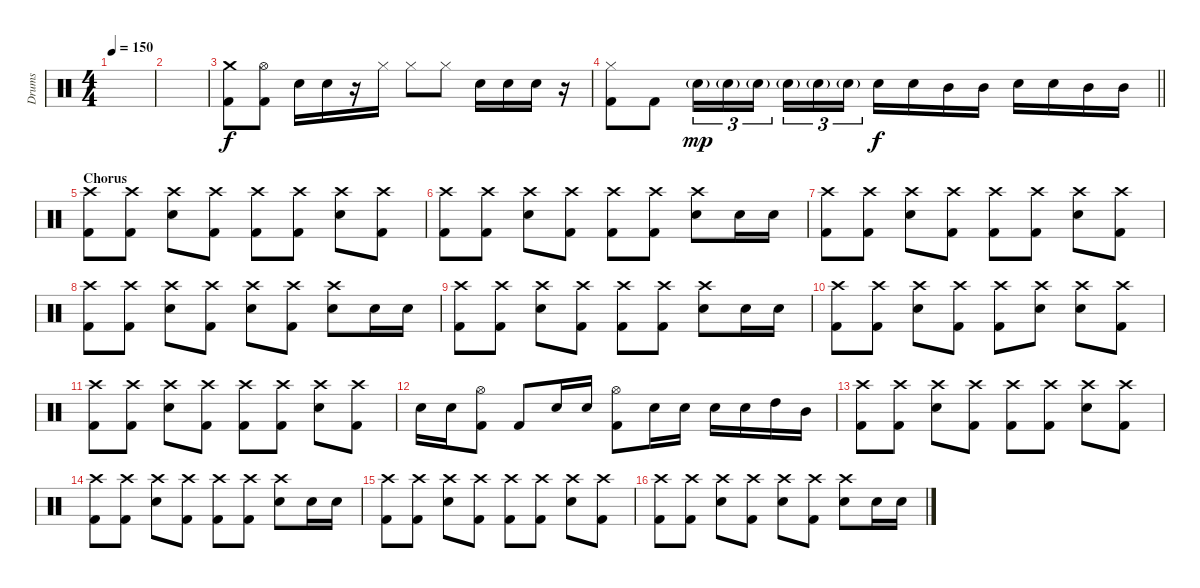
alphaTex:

\track ("Drums" "Drums") {instrument percussion}
\staff {score}
\articulation defaults
\ts (4 4)
\tempo 150
\clef neutral
\ks c
|
|
("Crash medium (hit)" "Kick (hit) 2").8{dy f} ("Hi-Hat (open)" "Kick (hit) 2").8 "Electric Snare (hit)".16 "Electric Snare (hit)".16 r.16 "Hi-Hat (closed)".16 "Hi-Hat (closed)".8 "Hi-Hat (closed)".8 "Electric Snare (hit)".16 "Electric Snare (hit)".16 "Electric Snare (hit)".16 r.16 |
\barLineRight lightlight
("Hi-Hat (closed)" "Kick (hit) 2").8 "Kick (hit) 2".8 "Electric Snare (hit)"{g}.16{tu (3 2) dy mp} "Electric Snare (hit)"{g}.16{tu (3 2)} "Electric Snare (hit)"{g}.16{tu (3 2) beam splitsecondary} "Electric Snare (hit)"{g}.16{tu (3 2)} "Electric Snare (hit)"{g}.16{tu (3 2)} "Electric Snare (hit)"{g}.16{tu (3 2)} "Electric Snare (hit)".16{dy f} "Electric Snare (hit)".16 "Mid Tom (hit)".16 "Mid Tom (hit)".16 "Electric Snare (hit)".16 "Electric Snare (hit)".16 "Mid Tom (hit)".16 "Mid Tom (hit)".16 |
\section ("" "Chorus")
("Crash high (hit)" "Kick (hit) 2").8 ("Crash high (hit)" "Kick (hit) 2").8 ("Crash high (hit)" "Electric Snare (hit)").8 ("Crash high (hit)" "Kick (hit) 2").8 ("Crash high (hit)" "Kick (hit) 2").8 ("Crash high (hit)" "Kick (hit) 2").8 ("Crash high (hit)" "Electric Snare (hit)").8 ("Crash high (hit)" "Kick (hit) 2").8 |
("Crash high (hit)" "Kick (hit) 2").8 ("Crash high (hit)" "Kick (hit) 2").8 ("Crash high (hit)" "Electric Snare (hit)").8 ("Crash high (hit)" "Kick (hit) 2").8 ("Crash high (hit)" "Kick (hit) 2").8 ("Crash high (hit)" "Kick (hit) 2").8 ("Crash high (hit)" "Electric Snare (hit)").8 "Electric Snare (hit)".16 "Electric Snare (hit)".16 |
("Crash high (hit)" "Kick (hit) 2").8 ("Crash high (hit)" "Kick (hit) 2").8 ("Crash high (hit)" "Electric Snare (hit)").8 ("Crash high (hit)" "Kick (hit) 2").8 ("Crash high (hit)" "Kick (hit) 2").8 ("Crash high (hit)" "Kick (hit) 2").8 ("Crash high (hit)" "Electric Snare (hit)").8 ("Crash high (hit)" "Kick (hit) 2").8 |
("Crash high (hit)" "Kick (hit) 2").8 ("Crash high (hit)" "Kick (hit) 2").8 ("Crash high (hit)" "Electric Snare (hit)").8 ("Crash high (hit)" "Kick (hit) 2").8 ("Crash high (hit)" "Electric Snare (hit)").8 ("Crash high (hit)" "Kick (hit) 2").8 ("Crash high (hit)" "Electric Snare (hit)").8 "Electric Snare (hit)".16 "Electric Snare (hit)".16 |
("Crash high (hit)" "Kick (hit) 2").8 ("Crash high (hit)" "Kick (hit) 2").8 ("Crash high (hit)" "Electric Snare (hit)").8 ("Crash high (hit)" "Kick (hit) 2").8 ("Crash high (hit)" "Kick (hit) 2").8 ("Crash high (hit)" "Kick (hit) 2").8 ("Crash high (hit)" "Electric Snare (hit)").8 "Electric Snare (hit)".16 "Electric Snare (hit)".16 |
("Crash high (hit)" "Kick (hit) 2").8 ("Crash high (hit)" "Kick (hit) 2").8 ("Crash high (hit)" "Electric Snare (hit)").8 ("Crash high (hit)" "Kick (hit) 2").8 ("Crash high (hit)" "Kick (hit) 2").8 ("Crash high (hit)" "Electric Snare (hit)").8 ("Crash high (hit)" "Electric Snare (hit)").8 ("Crash high (hit)" "Kick (hit) 2").8 |
("Crash high (hit)" "Kick (hit) 2").8 ("Crash high (hit)" "Kick (hit) 2").8 ("Crash high (hit)" "Electric Snare (hit)").8 ("Crash high (hit)" "Kick (hit) 2").8 ("Crash high (hit)" "Kick (hit) 2").8 ("Crash high (hit)" "Kick (hit) 2").8 ("Crash high (hit)" "Electric Snare (hit)").8 ("Crash high (hit)" "Kick (hit) 2").8 |
"Electric Snare (hit)".16 "Electric Snare (hit)".16 ("Hi-Hat (open)" "Kick (hit) 2").8 "Kick (hit) 2".8 "Electric Snare (hit)".16 "Electric Snare (hit)".16 ("Hi-Hat (open)" "Kick (hit) 2").8 "Electric Snare (hit)".16 "Electric Snare (hit)".16 "Electric Snare (hit)".16 "Electric Snare (hit)".16 "High Tom (hit)".16 "Mid Tom (hit)".16 |
("Crash high (hit)" "Kick (hit) 2").8 ("Crash high (hit)" "Kick (hit) 2").8 ("Crash high (hit)" "Electric Snare (hit)").8 ("Crash high (hit)" "Kick (hit) 2").8 ("Crash high (hit)" "Kick (hit) 2").8 ("Crash high (hit)" "Kick (hit) 2").8 ("Crash high (hit)" "Electric Snare (hit)").8 ("Crash high (hit)" "Kick (hit) 2").8 |
("Crash high (hit)" "Kick (hit) 2").8 ("Crash high (hit)" "Kick (hit) 2").8 ("Crash high (hit)" "Electric Snare (hit)").8 ("Crash high (hit)" "Kick (hit) 2").8 ("Crash high (hit)" "Kick (hit) 2").8 ("Crash high (hit)" "Kick (hit) 2").8 ("Crash high (hit)" "Electric Snare (hit)").8 "Electric Snare (hit)".16 "Electric Snare (hit)".16 |
("Crash high (hit)" "Kick (hit) 2").8 ("Crash high (hit)" "Kick (hit) 2").8 ("Crash high (hit)" "Electric Snare (hit)").8 ("Crash high (hit)" "Kick (hit) 2").8 ("Crash high (hit)" "Kick (hit) 2").8 ("Crash high (hit)" "Kick (hit) 2").8 ("Crash high (hit)" "Electric Snare (hit)").8 ("Crash high (hit)" "Kick (hit) 2").8 |
("Crash high (hit)" "Kick (hit) 2").8 ("Crash high (hit)" "Kick (hit) 2").8 ("Crash high (hit)" "Electric Snare (hit)").8 ("Crash high (hit)" "Kick (hit) 2").8 ("Crash high (hit)" "Electric Snare (hit)").8 ("Crash high (hit)" "Kick (hit) 2").8 ("Crash high (hit)" "Electric Snare (hit)").8 "Electric Snare (hit)".16 "Electric Snare (hit)".16
